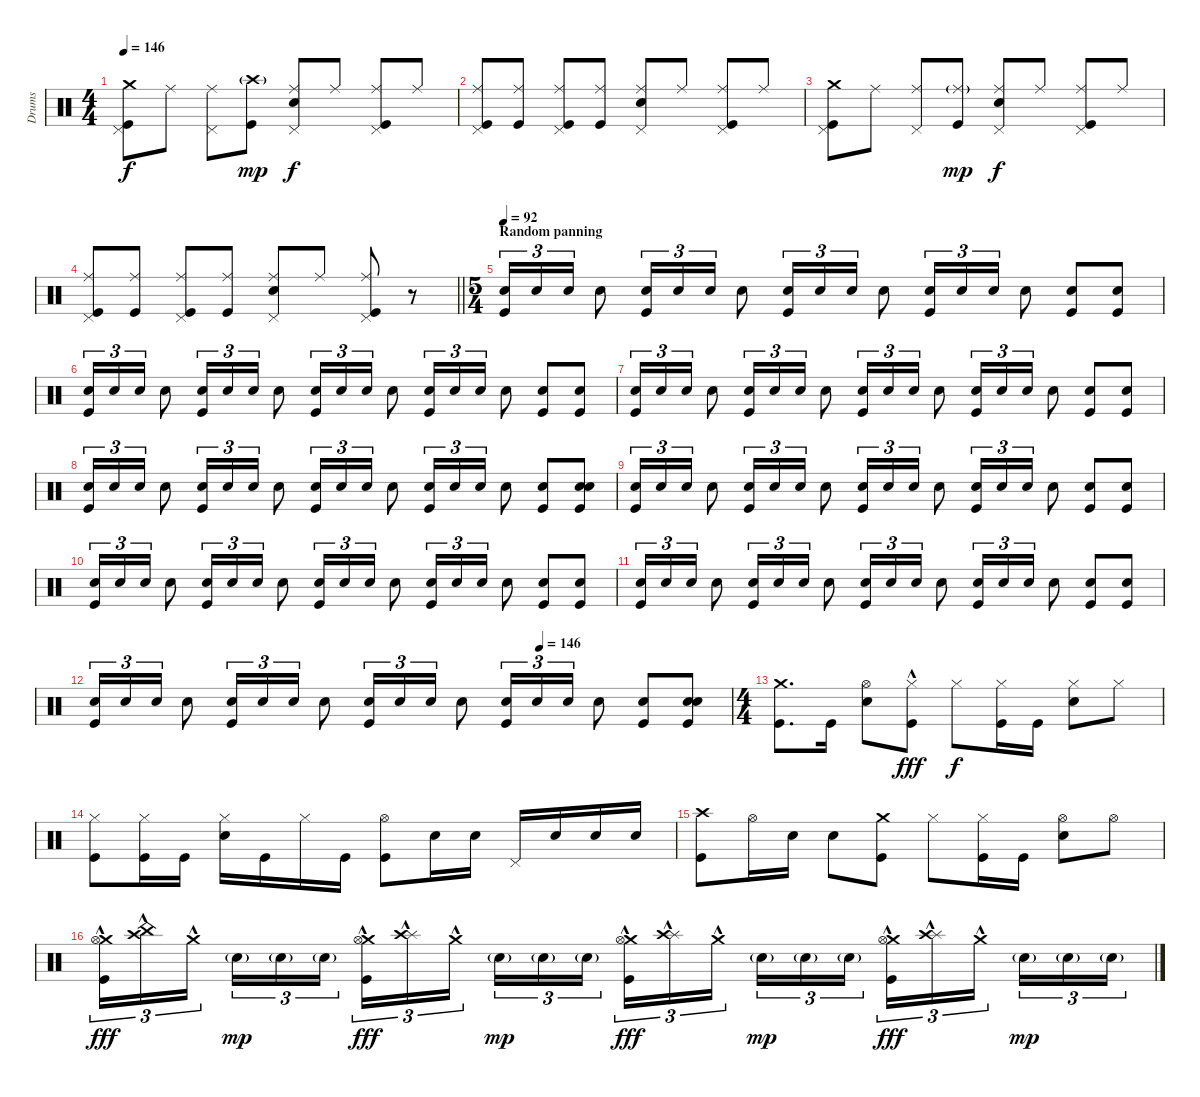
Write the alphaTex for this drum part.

\track ("Drums" "Drums") {instrument percussion}
\staff {score}
\articulation defaults
\ts (4 4)
\tempo 146
\clef neutral
\ks c
("Crash medium (hit)" "Pedal Hi-Hat (hit)" "Kick (hit)").8{dy f} "Ride (middle)".8 ("Ride (middle)" "Pedal Hi-Hat (hit)").8 ("Crash high (hit)"{g} "Kick (hit)").8{dy mp} ("Ride (middle)" "Pedal Hi-Hat (hit)" "Electric Snare (hit)").8{dy f} "Ride (middle)".8 ("Ride (middle)" "Pedal Hi-Hat (hit)" "Kick (hit)").8 "Ride (middle)".8 |
("Ride (middle)" "Pedal Hi-Hat (hit)" "Kick (hit)").8 ("Ride (middle)" "Kick (hit)").8 ("Ride (middle)" "Pedal Hi-Hat (hit)" "Kick (hit)").8 ("Ride (middle)" "Kick (hit)").8 ("Ride (middle)" "Pedal Hi-Hat (hit)" "Electric Snare (hit)").8 "Ride (middle)".8 ("Ride (middle)" "Pedal Hi-Hat (hit)" "Kick (hit)").8 "Ride (middle)".8 |
("Crash medium (hit)" "Pedal Hi-Hat (hit)" "Kick (hit)").8 "Ride (middle)".8 ("Ride (middle)" "Pedal Hi-Hat (hit)").8 ("Ride (middle)"{g} "Kick (hit)").8{dy mp} ("Ride (middle)" "Pedal Hi-Hat (hit)" "Electric Snare (hit)").8{dy f} "Ride (middle)".8 ("Ride (middle)" "Pedal Hi-Hat (hit)" "Kick (hit)").8 "Ride (middle)".8 |
\barLineRight lightlight
("Ride (middle)" "Pedal Hi-Hat (hit)" "Kick (hit)").8 ("Ride (middle)" "Kick (hit)").8 ("Ride (middle)" "Pedal Hi-Hat (hit)" "Kick (hit)").8 ("Ride (middle)" "Kick (hit)").8 ("Ride (middle)" "Pedal Hi-Hat (hit)" "Electric Snare (hit)").8 "Ride (middle)".8 ("Ride (middle)" "Pedal Hi-Hat (hit)" "Kick (hit)").8 r.8 |
\ts (5 4)
\section ("" "Random panning")
\tempo 92
("Electric Snare (hit)" "Kick (hit)").16{tu (3 2)} "Electric Snare (hit)".16{tu (3 2)} "Electric Snare (hit)".16{tu (3 2)} "Electric Snare (hit)".8 ("Electric Snare (hit)" "Kick (hit)").16{tu (3 2)} "Electric Snare (hit)".16{tu (3 2)} "Electric Snare (hit)".16{tu (3 2)} "Electric Snare (hit)".8 ("Electric Snare (hit)" "Kick (hit)").16{tu (3 2)} "Electric Snare (hit)".16{tu (3 2)} "Electric Snare (hit)".16{tu (3 2)} "Electric Snare (hit)".8 ("Electric Snare (hit)" "Kick (hit)").16{tu (3 2)} "Electric Snare (hit)".16{tu (3 2)} "Electric Snare (hit)".16{tu (3 2)} "Electric Snare (hit)".8 ("Electric Snare (hit)" "Kick (hit)").8 ("Electric Snare (hit)" "Kick (hit)").8 |
("Electric Snare (hit)" "Kick (hit)").16{tu (3 2)} "Electric Snare (hit)".16{tu (3 2)} "Electric Snare (hit)".16{tu (3 2)} "Electric Snare (hit)".8 ("Electric Snare (hit)" "Kick (hit)").16{tu (3 2)} "Electric Snare (hit)".16{tu (3 2)} "Electric Snare (hit)".16{tu (3 2)} "Electric Snare (hit)".8 ("Electric Snare (hit)" "Kick (hit)").16{tu (3 2)} "Electric Snare (hit)".16{tu (3 2)} "Electric Snare (hit)".16{tu (3 2)} "Electric Snare (hit)".8 ("Electric Snare (hit)" "Kick (hit)").16{tu (3 2)} "Electric Snare (hit)".16{tu (3 2)} "Electric Snare (hit)".16{tu (3 2)} "Electric Snare (hit)".8 ("Electric Snare (hit)" "Kick (hit)").8 ("Electric Snare (hit)" "Kick (hit)").8 |
("Electric Snare (hit)" "Kick (hit)").16{tu (3 2)} "Electric Snare (hit)".16{tu (3 2)} "Electric Snare (hit)".16{tu (3 2)} "Electric Snare (hit)".8 ("Electric Snare (hit)" "Kick (hit)").16{tu (3 2)} "Electric Snare (hit)".16{tu (3 2)} "Electric Snare (hit)".16{tu (3 2)} "Electric Snare (hit)".8 ("Electric Snare (hit)" "Kick (hit)").16{tu (3 2)} "Electric Snare (hit)".16{tu (3 2)} "Electric Snare (hit)".16{tu (3 2)} "Electric Snare (hit)".8 ("Electric Snare (hit)" "Kick (hit)").16{tu (3 2)} "Electric Snare (hit)".16{tu (3 2)} "Electric Snare (hit)".16{tu (3 2)} "Electric Snare (hit)".8 ("Electric Snare (hit)" "Kick (hit)").8 ("Electric Snare (hit)" "Kick (hit)").8 |
("Electric Snare (hit)" "Kick (hit)").16{tu (3 2)} "Electric Snare (hit)".16{tu (3 2)} "Electric Snare (hit)".16{tu (3 2)} "Electric Snare (hit)".8 ("Electric Snare (hit)" "Kick (hit)").16{tu (3 2)} "Electric Snare (hit)".16{tu (3 2)} "Electric Snare (hit)".16{tu (3 2)} "Electric Snare (hit)".8 ("Electric Snare (hit)" "Kick (hit)").16{tu (3 2)} "Electric Snare (hit)".16{tu (3 2)} "Electric Snare (hit)".16{tu (3 2)} "Electric Snare (hit)".8 ("Electric Snare (hit)" "Kick (hit)").16{tu (3 2)} "Electric Snare (hit)".16{tu (3 2)} "Electric Snare (hit)".16{tu (3 2)} "Electric Snare (hit)".8 ("Electric Snare (hit)" "Kick (hit)").8 ("Electric Snare (hit)" "Electric Snare (hit)" "Kick (hit)").8 |
("Electric Snare (hit)" "Kick (hit)").16{tu (3 2)} "Electric Snare (hit)".16{tu (3 2)} "Electric Snare (hit)".16{tu (3 2)} "Electric Snare (hit)".8 ("Electric Snare (hit)" "Kick (hit)").16{tu (3 2)} "Electric Snare (hit)".16{tu (3 2)} "Electric Snare (hit)".16{tu (3 2)} "Electric Snare (hit)".8 ("Electric Snare (hit)" "Kick (hit)").16{tu (3 2)} "Electric Snare (hit)".16{tu (3 2)} "Electric Snare (hit)".16{tu (3 2)} "Electric Snare (hit)".8 ("Electric Snare (hit)" "Kick (hit)").16{tu (3 2)} "Electric Snare (hit)".16{tu (3 2)} "Electric Snare (hit)".16{tu (3 2)} "Electric Snare (hit)".8 ("Electric Snare (hit)" "Kick (hit)").8 ("Electric Snare (hit)" "Kick (hit)").8 |
("Electric Snare (hit)" "Kick (hit)").16{tu (3 2)} "Electric Snare (hit)".16{tu (3 2)} "Electric Snare (hit)".16{tu (3 2)} "Electric Snare (hit)".8 ("Electric Snare (hit)" "Kick (hit)").16{tu (3 2)} "Electric Snare (hit)".16{tu (3 2)} "Electric Snare (hit)".16{tu (3 2)} "Electric Snare (hit)".8 ("Electric Snare (hit)" "Kick (hit)").16{tu (3 2)} "Electric Snare (hit)".16{tu (3 2)} "Electric Snare (hit)".16{tu (3 2)} "Electric Snare (hit)".8 ("Electric Snare (hit)" "Kick (hit)").16{tu (3 2)} "Electric Snare (hit)".16{tu (3 2)} "Electric Snare (hit)".16{tu (3 2)} "Electric Snare (hit)".8 ("Electric Snare (hit)" "Kick (hit)").8 ("Electric Snare (hit)" "Kick (hit)").8 |
("Electric Snare (hit)" "Kick (hit)").16{tu (3 2)} "Electric Snare (hit)".16{tu (3 2)} "Electric Snare (hit)".16{tu (3 2)} "Electric Snare (hit)".8 ("Electric Snare (hit)" "Kick (hit)").16{tu (3 2)} "Electric Snare (hit)".16{tu (3 2)} "Electric Snare (hit)".16{tu (3 2)} "Electric Snare (hit)".8 ("Electric Snare (hit)" "Kick (hit)").16{tu (3 2)} "Electric Snare (hit)".16{tu (3 2)} "Electric Snare (hit)".16{tu (3 2)} "Electric Snare (hit)".8 ("Electric Snare (hit)" "Kick (hit)").16{tu (3 2)} "Electric Snare (hit)".16{tu (3 2)} "Electric Snare (hit)".16{tu (3 2)} "Electric Snare (hit)".8 ("Electric Snare (hit)" "Kick (hit)").8 ("Electric Snare (hit)" "Kick (hit)").8 |
\tempo (146 0.7)
("Electric Snare (hit)" "Kick (hit)").16{tu (3 2)} "Electric Snare (hit)".16{tu (3 2)} "Electric Snare (hit)".16{tu (3 2)} "Electric Snare (hit)".8 ("Electric Snare (hit)" "Kick (hit)").16{tu (3 2)} "Electric Snare (hit)".16{tu (3 2)} "Electric Snare (hit)".16{tu (3 2)} "Electric Snare (hit)".8 ("Electric Snare (hit)" "Kick (hit)").16{tu (3 2)} "Electric Snare (hit)".16{tu (3 2)} "Electric Snare (hit)".16{tu (3 2)} "Electric Snare (hit)".8 ("Electric Snare (hit)" "Kick (hit)").16{tu (3 2)} "Electric Snare (hit)".16{tu (3 2)} "Electric Snare (hit)".16{tu (3 2)} "Electric Snare (hit)".8 ("Electric Snare (hit)" "Kick (hit)").8 ("Electric Snare (hit)" "Electric Snare (hit)" "Kick (hit)").8 |
\ts (4 4)
("Crash medium (hit)" "Kick (hit)").8{d} "Kick (hit)".16 ("Hi-Hat (open)" "Electric Snare (hit)").8 ("Hi-Hat (closed)"{hac} "Kick (hit)"{hac}).8{dy fff} "Hi-Hat (closed)".8{dy f} ("Hi-Hat (closed)" "Kick (hit)").16 "Kick (hit)".16 ("Hi-Hat (closed)" "Electric Snare (hit)").8 "Hi-Hat (closed)".8 |
("Hi-Hat (closed)" "Kick (hit)").8 ("Hi-Hat (closed)" "Kick (hit)").16 "Kick (hit)".16 ("Hi-Hat (closed)" "Electric Snare (hit)").16 "Kick (hit)".16 "Hi-Hat (closed)".16 "Kick (hit)".16 ("Hi-Hat (open)" "Kick (hit)").8 "Electric Snare (hit)".16 "Electric Snare (hit)".16 "Pedal Hi-Hat (hit)".16 "Electric Snare (hit)".16 "Electric Snare (hit)".16 "Electric Snare (hit)".16 |
("Crash high (hit)" "Kick (hit)").8 "Hi-Hat (open)".16 "Electric Snare (hit)".16 "Electric Snare (hit)".8 ("Crash medium (hit)" "Kick (hit)").8 "Hi-Hat (closed)".8 ("Hi-Hat (closed)" "Kick (hit)").16 "Kick (hit)".16 ("Hi-Hat (open)" "Electric Snare (hit)").8 "Hi-Hat (open)".8 |
("Crash medium (hit)"{hac} "Hi-Hat (open)"{hac} "Kick (hit)"{hac}).16{tu (3 2) dy fff} ("China (hit)"{hac} "Crash high (hit)"{hac}).16{tu (3 2)} "Crash medium (hit)"{hac}.16{tu (3 2) beam splitsecondary} "Electric Snare (hit)"{g}.16{tu (3 2) dy mp} "Electric Snare (hit)"{g}.16{tu (3 2)} "Electric Snare (hit)"{g}.16{tu (3 2)} ("Crash medium (hit)"{hac} "Hi-Hat (open)"{hac} "Kick (hit)"{hac}).16{tu (3 2) dy fff} ("Splash (hit)"{hac} "Crash high (hit)"{hac}).16{tu (3 2)} "Crash medium (hit)"{hac}.16{tu (3 2) beam splitsecondary} "Electric Snare (hit)"{g}.16{tu (3 2) dy mp} "Electric Snare (hit)"{g}.16{tu (3 2)} "Electric Snare (hit)"{g}.16{tu (3 2)} ("Crash medium (hit)"{hac} "Hi-Hat (open)"{hac} "Kick (hit)"{hac}).16{tu (3 2) dy fff} ("Splash (hit)"{hac} "Crash high (hit)"{hac}).16{tu (3 2)} "Crash medium (hit)"{hac}.16{tu (3 2) beam splitsecondary} "Electric Snare (hit)"{g}.16{tu (3 2) dy mp} "Electric Snare (hit)"{g}.16{tu (3 2)} "Electric Snare (hit)"{g}.16{tu (3 2)} ("Crash medium (hit)"{hac} "Hi-Hat (open)"{hac} "Kick (hit)"{hac}).16{tu (3 2) dy fff} ("Splash (hit)"{hac} "Crash high (hit)"{hac}).16{tu (3 2)} "Crash medium (hit)"{hac}.16{tu (3 2) beam splitsecondary} "Electric Snare (hit)"{g}.16{tu (3 2) dy mp} "Electric Snare (hit)"{g}.16{tu (3 2)} "Electric Snare (hit)"{g}.16{tu (3 2)}
